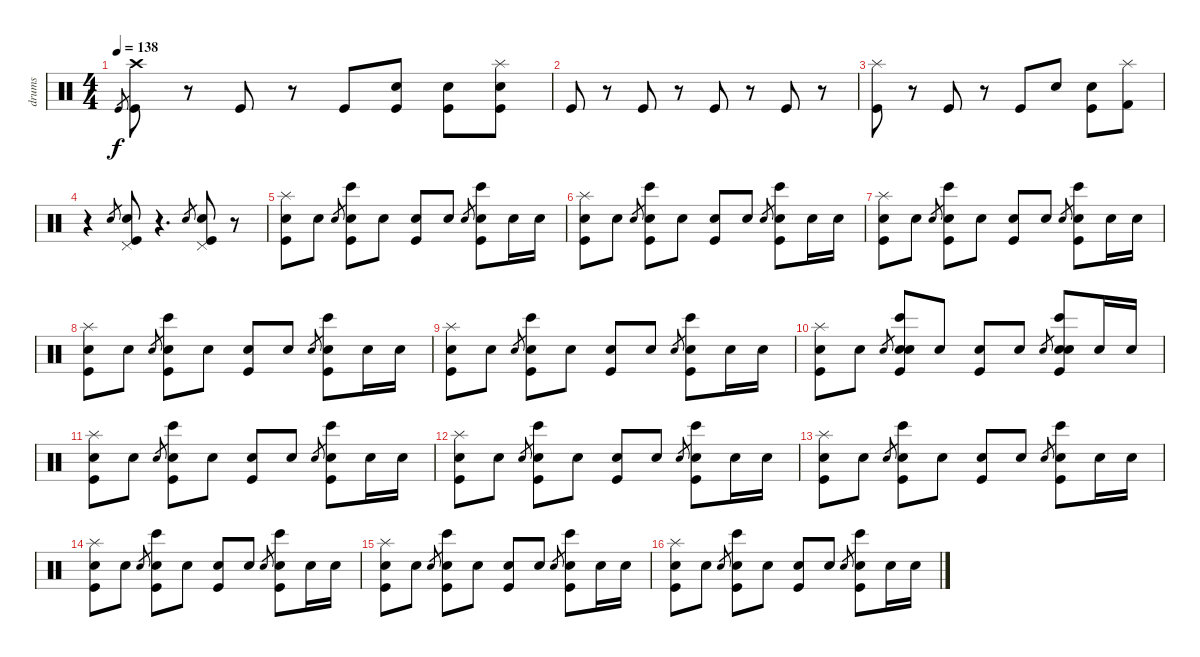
\track ("drums" "drums") {instrument percussion}
\staff {score}
\articulation defaults
\ts (4 4)
\tempo 138
\clef neutral
\ks c "Kick (hit)".8{gr dy f}
("Crash high (hit)" "Kick (hit)").8{volume 16} r.8 "Kick (hit)".8 r.8 "Kick (hit)".8 ("Snare (hit) 2" "Kick (hit)").8 ("Snare (hit) 2" "Kick (hit)").8 ("Splash (hit)" "Snare (hit) 2" "Kick (hit)").8 |
"Kick (hit)".8 r.8 "Kick (hit)".8 r.8 "Kick (hit)".8 r.8 "Kick (hit)".8 r.8 |
("Splash (hit)" "Kick (hit)").8 r.8 "Kick (hit)".8 r.8 "Kick (hit)".8 "Snare (hit) 2".8 ("Snare (hit) 2" "Kick (hit)").8 ("Splash (hit)" "Kick (hit) 2").8 |
r.4 "Snare (hit) 2".8{gr} ("Snare (hit) 2" "Pedal Hi-Hat (hit)" "Kick (hit)").8 r.4{d} "Snare (hit) 2".8{gr} ("Snare (hit) 2" "Pedal Hi-Hat (hit)" "Kick (hit)").8 r.8 |
("Splash (hit)" "Snare (hit) 2" "Kick (hit)").8{volume 11} "Snare (hit) 2".8 "Snare (hit)".8{gr} ("Bongo High (hit)" "Snare (hit) 2" "Kick (hit)").8 "Snare (hit) 2".8 ("Snare (hit) 2" "Kick (hit)").8 "Snare (hit) 2".8 "Snare (hit)".8{gr} ("Bongo High (hit)" "Snare (hit) 2" "Kick (hit)").8 "Snare (hit) 2".16 "Snare (hit) 2".16 |
("Splash (hit)" "Snare (hit) 2" "Kick (hit)").8{volume 11} "Snare (hit) 2".8 "Snare (hit)".8{gr} ("Bongo High (hit)" "Snare (hit) 2" "Kick (hit)").8 "Snare (hit) 2".8 ("Snare (hit) 2" "Kick (hit)").8 "Snare (hit) 2".8 "Snare (hit)".8{gr} ("Bongo High (hit)" "Snare (hit) 2" "Kick (hit)").8 "Snare (hit) 2".16 "Snare (hit) 2".16 |
("Splash (hit)" "Snare (hit) 2" "Kick (hit)").8{volume 11} "Snare (hit) 2".8 "Snare (hit)".8{gr} ("Bongo High (hit)" "Snare (hit) 2" "Kick (hit)").8 "Snare (hit) 2".8 ("Snare (hit) 2" "Kick (hit)").8 "Snare (hit) 2".8 "Snare (hit)".8{gr} ("Bongo High (hit)" "Snare (hit) 2" "Kick (hit)").8 "Snare (hit) 2".16 "Snare (hit) 2".16 |
("Splash (hit)" "Snare (hit) 2" "Kick (hit)").8{volume 11} "Snare (hit) 2".8 "Snare (hit)".8{gr} ("Bongo High (hit)" "Snare (hit) 2" "Kick (hit)").8 "Snare (hit) 2".8 ("Snare (hit) 2" "Kick (hit)").8 "Snare (hit) 2".8 "Snare (hit)".8{gr} ("Bongo High (hit)" "Snare (hit) 2" "Kick (hit)").8 "Snare (hit) 2".16 "Snare (hit) 2".16 |
("Splash (hit)" "Snare (hit) 2" "Kick (hit)").8{volume 11} "Snare (hit) 2".8 "Snare (hit)".8{gr} ("Bongo High (hit)" "Snare (hit) 2" "Kick (hit)").8 "Snare (hit) 2".8 ("Snare (hit) 2" "Kick (hit)").8 "Snare (hit) 2".8 "Snare (hit)".8{gr} ("Bongo High (hit)" "Snare (hit) 2" "Kick (hit)").8 "Snare (hit) 2".16 "Snare (hit) 2".16 |
("Splash (hit)" "Snare (hit) 2" "Kick (hit)").8{volume 11} "Snare (hit) 2".8 "Snare (hit)".8{gr} ("Bongo High (hit)" "Snare (hit) 2" "Hand Clap (hit)" "Kick (hit)").8 "Snare (hit) 2".8 ("Snare (hit) 2" "Kick (hit)").8 "Snare (hit) 2".8 "Snare (hit)".8{gr} ("Bongo High (hit)" "Snare (hit) 2" "Hand Clap (hit)" "Kick (hit)").8 "Snare (hit) 2".16 "Snare (hit) 2".16 |
("Splash (hit)" "Snare (hit) 2" "Kick (hit)").8{volume 11} "Snare (hit) 2".8 "Snare (hit)".8{gr} ("Bongo High (hit)" "Snare (hit) 2" "Kick (hit)").8 "Snare (hit) 2".8 ("Snare (hit) 2" "Kick (hit)").8 "Snare (hit) 2".8 "Snare (hit)".8{gr} ("Bongo High (hit)" "Snare (hit) 2" "Kick (hit)").8 "Snare (hit) 2".16 "Snare (hit) 2".16 |
("Splash (hit)" "Snare (hit) 2" "Kick (hit)").8{volume 11} "Snare (hit) 2".8 "Snare (hit)".8{gr} ("Bongo High (hit)" "Snare (hit) 2" "Kick (hit)").8 "Snare (hit) 2".8 ("Snare (hit) 2" "Kick (hit)").8 "Snare (hit) 2".8 "Snare (hit)".8{gr} ("Bongo High (hit)" "Snare (hit) 2" "Kick (hit)").8 "Snare (hit) 2".16 "Snare (hit) 2".16 |
("Splash (hit)" "Snare (hit) 2" "Kick (hit)").8{volume 11} "Snare (hit) 2".8 "Snare (hit)".8{gr} ("Bongo High (hit)" "Snare (hit) 2" "Kick (hit)").8 "Snare (hit) 2".8 ("Snare (hit) 2" "Kick (hit)").8 "Snare (hit) 2".8 "Snare (hit)".8{gr} ("Bongo High (hit)" "Snare (hit) 2" "Kick (hit)").8 "Snare (hit) 2".16 "Snare (hit) 2".16 |
("Splash (hit)" "Snare (hit) 2" "Kick (hit)").8{volume 11} "Snare (hit) 2".8 "Snare (hit)".8{gr} ("Bongo High (hit)" "Snare (hit) 2" "Kick (hit)").8 "Snare (hit) 2".8 ("Snare (hit) 2" "Kick (hit)").8 "Snare (hit) 2".8 "Snare (hit)".8{gr} ("Bongo High (hit)" "Snare (hit) 2" "Kick (hit)").8 "Snare (hit) 2".16 "Snare (hit) 2".16 |
("Splash (hit)" "Snare (hit) 2" "Kick (hit)").8{volume 11} "Snare (hit) 2".8 "Snare (hit)".8{gr} ("Bongo High (hit)" "Snare (hit) 2" "Kick (hit)").8 "Snare (hit) 2".8 ("Snare (hit) 2" "Kick (hit)").8 "Snare (hit) 2".8 "Snare (hit)".8{gr} ("Bongo High (hit)" "Snare (hit) 2" "Kick (hit)").8 "Snare (hit) 2".16 "Snare (hit) 2".16 |
("Splash (hit)" "Snare (hit) 2" "Kick (hit)").8{volume 11} "Snare (hit) 2".8 "Snare (hit)".8{gr} ("Bongo High (hit)" "Snare (hit) 2" "Kick (hit)").8 "Snare (hit) 2".8 ("Snare (hit) 2" "Kick (hit)").8 "Snare (hit) 2".8 "Snare (hit)".8{gr} ("Bongo High (hit)" "Snare (hit) 2" "Kick (hit)").8 "Snare (hit) 2".16 "Snare (hit) 2".16
